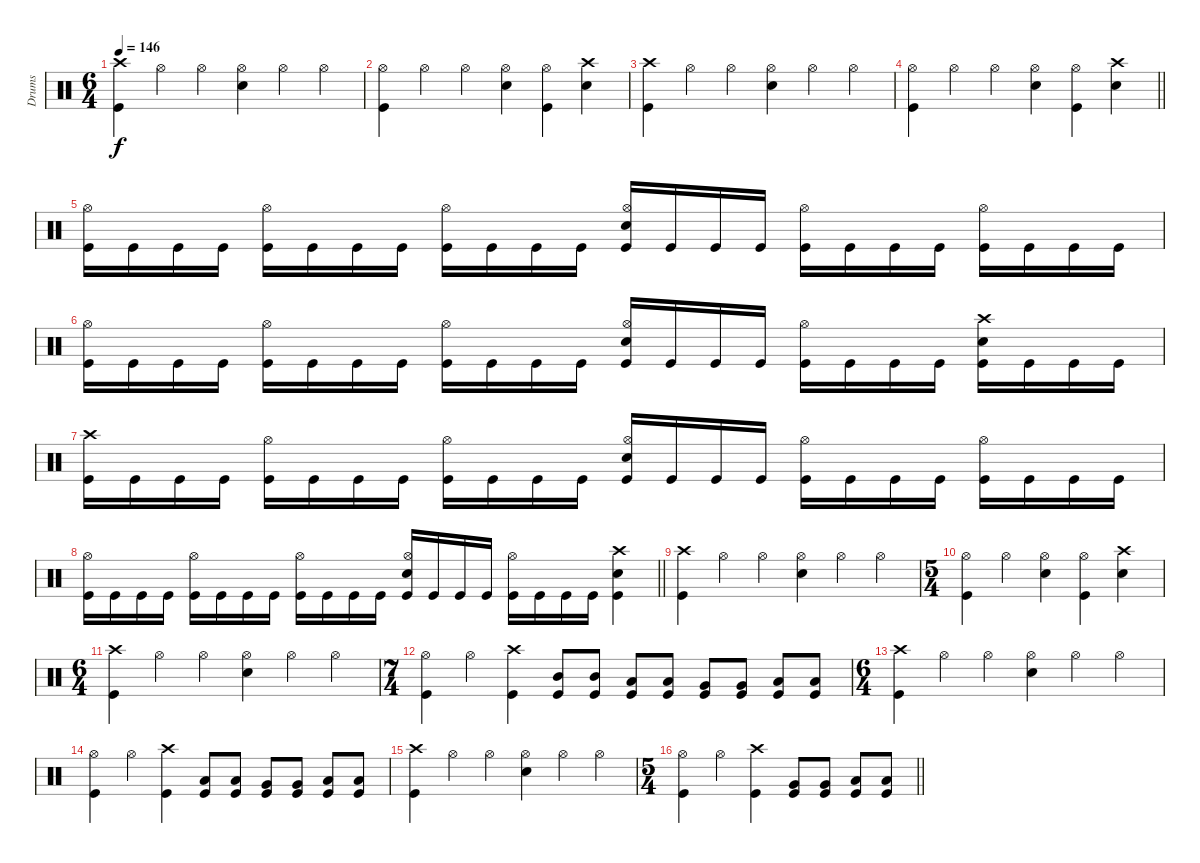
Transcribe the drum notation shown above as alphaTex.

\track ("Drums" "Drums") {instrument percussion}
\staff {score}
\articulation defaults
\ts (6 4)
\tempo 146
\clef neutral
\ks c
("Crash high (hit)" "Kick (hit)").4{dy f} "Hi-Hat (open)".4 "Hi-Hat (open)".4 ("Hi-Hat (open)" "Snare (hit) 2").4 "Hi-Hat (open)".4 "Hi-Hat (open)".4 |
("Hi-Hat (open)" "Kick (hit)").4 "Hi-Hat (open)".4 "Hi-Hat (open)".4 ("Hi-Hat (open)" "Snare (hit) 2").4 ("Hi-Hat (open)" "Kick (hit)").4 ("Crash high (hit)" "Snare (hit) 2").4 |
("Crash high (hit)" "Kick (hit)").4 "Hi-Hat (open)".4 "Hi-Hat (open)".4 ("Hi-Hat (open)" "Snare (hit) 2").4 "Hi-Hat (open)".4 "Hi-Hat (open)".4 |
\barLineRight lightlight
("Hi-Hat (open)" "Kick (hit)").4 "Hi-Hat (open)".4 "Hi-Hat (open)".4 ("Hi-Hat (open)" "Snare (hit) 2").4 ("Hi-Hat (open)" "Kick (hit)").4 ("Crash high (hit)" "Snare (hit) 2").4 |
("Hi-Hat (open)" "Kick (hit)").16 "Kick (hit)".16 "Kick (hit)".16 "Kick (hit)".16 ("Hi-Hat (open)" "Kick (hit)").16 "Kick (hit)".16 "Kick (hit)".16 "Kick (hit)".16 ("Hi-Hat (open)" "Kick (hit)").16 "Kick (hit)".16 "Kick (hit)".16 "Kick (hit)".16 ("Snare (hit) 2" "Hi-Hat (open)" "Kick (hit)").16 "Kick (hit)".16 "Kick (hit)".16 "Kick (hit)".16 ("Hi-Hat (open)" "Kick (hit)").16 "Kick (hit)".16 "Kick (hit)".16 "Kick (hit)".16 ("Hi-Hat (open)" "Kick (hit)").16 "Kick (hit)".16 "Kick (hit)".16 "Kick (hit)".16 |
("Hi-Hat (open)" "Kick (hit)").16 "Kick (hit)".16 "Kick (hit)".16 "Kick (hit)".16 ("Hi-Hat (open)" "Kick (hit)").16 "Kick (hit)".16 "Kick (hit)".16 "Kick (hit)".16 ("Hi-Hat (open)" "Kick (hit)").16 "Kick (hit)".16 "Kick (hit)".16 "Kick (hit)".16 ("Snare (hit) 2" "Hi-Hat (open)" "Kick (hit)").16 "Kick (hit)".16 "Kick (hit)".16 "Kick (hit)".16 ("Hi-Hat (open)" "Kick (hit)").16 "Kick (hit)".16 "Kick (hit)".16 "Kick (hit)".16 ("Crash high (hit)" "Snare (hit) 2" "Kick (hit)").16 "Kick (hit)".16 "Kick (hit)".16 "Kick (hit)".16 |
("Crash high (hit)" "Kick (hit)").16 "Kick (hit)".16 "Kick (hit)".16 "Kick (hit)".16 ("Hi-Hat (open)" "Kick (hit)").16 "Kick (hit)".16 "Kick (hit)".16 "Kick (hit)".16 ("Hi-Hat (open)" "Kick (hit)").16 "Kick (hit)".16 "Kick (hit)".16 "Kick (hit)".16 ("Snare (hit) 2" "Hi-Hat (open)" "Kick (hit)").16 "Kick (hit)".16 "Kick (hit)".16 "Kick (hit)".16 ("Hi-Hat (open)" "Kick (hit)").16 "Kick (hit)".16 "Kick (hit)".16 "Kick (hit)".16 ("Hi-Hat (open)" "Kick (hit)").16 "Kick (hit)".16 "Kick (hit)".16 "Kick (hit)".16 |
\barLineRight lightlight
("Hi-Hat (open)" "Kick (hit)").16 "Kick (hit)".16 "Kick (hit)".16 "Kick (hit)".16 ("Hi-Hat (open)" "Kick (hit)").16 "Kick (hit)".16 "Kick (hit)".16 "Kick (hit)".16 ("Hi-Hat (open)" "Kick (hit)").16 "Kick (hit)".16 "Kick (hit)".16 "Kick (hit)".16 ("Snare (hit) 2" "Hi-Hat (open)" "Kick (hit)").16 "Kick (hit)".16 "Kick (hit)".16 "Kick (hit)".16 ("Hi-Hat (open)" "Kick (hit)").16 "Kick (hit)".16 "Kick (hit)".16 "Kick (hit)".16 ("Crash high (hit)" "Snare (hit) 2" "Kick (hit)").4 |
("Crash high (hit)" "Kick (hit)").4 "Hi-Hat (open)".4 "Hi-Hat (open)".4 ("Hi-Hat (open)" "Snare (hit) 2").4 "Hi-Hat (open)".4 "Hi-Hat (open)".4 |
\ts (5 4)
("Hi-Hat (open)" "Kick (hit)").4 "Hi-Hat (open)".4 ("Hi-Hat (open)" "Snare (hit) 2").4 ("Hi-Hat (open)" "Kick (hit)").4 ("Crash high (hit)" "Snare (hit) 2").4 |
\ts (6 4)
("Crash high (hit)" "Kick (hit)").4 "Hi-Hat (open)".4 "Hi-Hat (open)".4 ("Hi-Hat (open)" "Snare (hit) 2").4 "Hi-Hat (open)".4 "Hi-Hat (open)".4 |
\ts (7 4)
("Hi-Hat (open)" "Kick (hit)").4 "Hi-Hat (open)".4 ("Crash high (hit)" "Kick (hit)").4 ("Mid Tom (hit)" "Kick (hit)").8 ("Mid Tom (hit)" "Kick (hit)").8 ("Low Tom (hit)" "Kick (hit)").8 ("Low Tom (hit)" "Kick (hit)").8 ("Very Low Tom (hit)" "Kick (hit)").8 ("Very Low Tom (hit)" "Kick (hit)").8 ("Low Floor Tom (hit)" "Kick (hit)").8 ("Low Floor Tom (hit)" "Kick (hit)").8 |
\ts (6 4)
("Crash high (hit)" "Kick (hit)").4 "Hi-Hat (open)".4 "Hi-Hat (open)".4 ("Hi-Hat (open)" "Snare (hit) 2").4 "Hi-Hat (open)".4 "Hi-Hat (open)".4 |
("Hi-Hat (open)" "Kick (hit)").4 "Hi-Hat (open)".4 ("Crash high (hit)" "Kick (hit)").4 ("Low Tom (hit)" "Kick (hit)").8 ("Low Tom (hit)" "Kick (hit)").8 ("Very Low Tom (hit)" "Kick (hit)").8 ("Very Low Tom (hit)" "Kick (hit)").8 ("Low Floor Tom (hit)" "Kick (hit)").8 ("Low Floor Tom (hit)" "Kick (hit)").8 |
("Crash high (hit)" "Kick (hit)").4 "Hi-Hat (open)".4 "Hi-Hat (open)".4 ("Hi-Hat (open)" "Snare (hit) 2").4 "Hi-Hat (open)".4 "Hi-Hat (open)".4 |
\ts (5 4)
\barLineRight lightlight
("Hi-Hat (open)" "Kick (hit)").4 "Hi-Hat (open)".4 ("Crash high (hit)" "Kick (hit)").4 ("Very Low Tom (hit)" "Kick (hit)").8 ("Very Low Tom (hit)" "Kick (hit)").8 ("Low Floor Tom (hit)" "Kick (hit)").8 ("Low Floor Tom (hit)" "Kick (hit)").8
